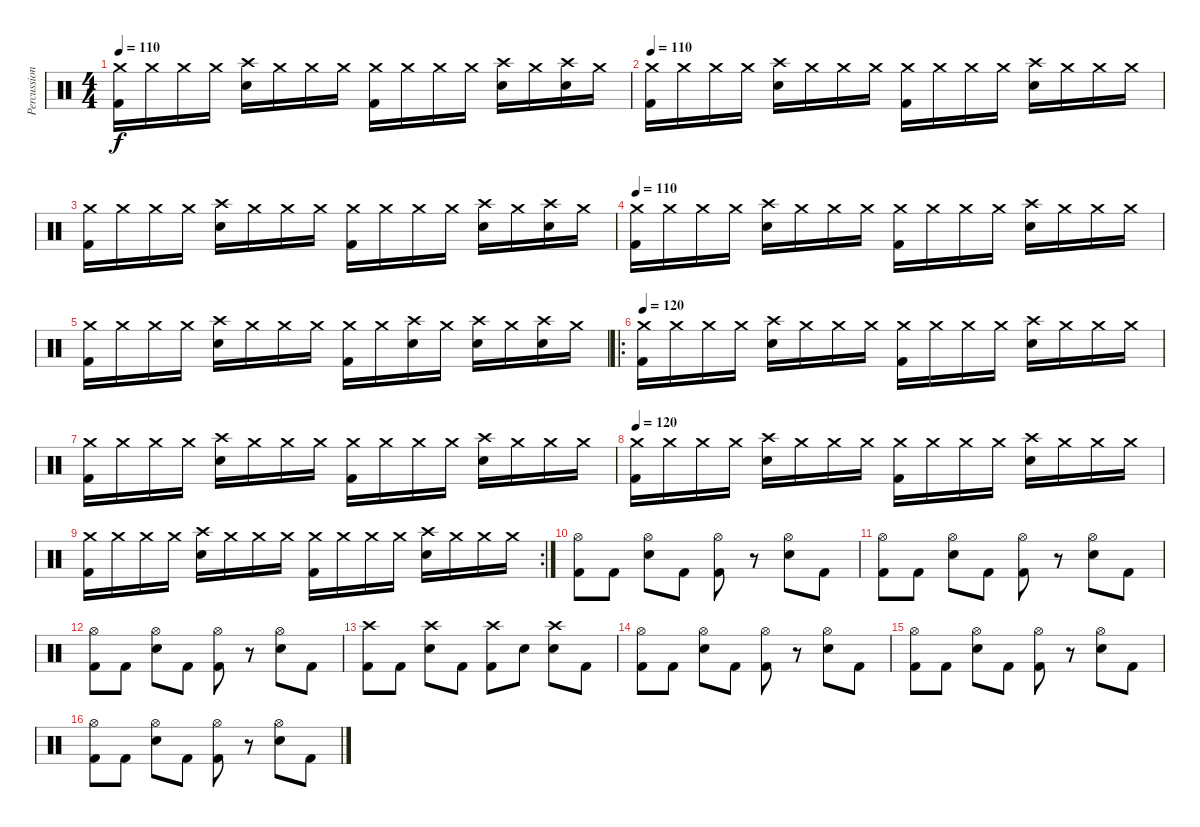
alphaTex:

\track ("Percussion" "Percussion") {instrument percussion}
\staff {score}
\articulation defaults
\ts (4 4)
\tempo 110
\clef neutral
\ks c
("Crash medium (hit)" "Kick (hit) 2").16{dy f} "Crash medium (hit)".16 "Crash medium (hit)".16 "Crash medium (hit)".16 ("Crash high (hit)" "Electric Snare (hit)").16 "Crash medium (hit)".16 "Crash medium (hit)".16 "Crash medium (hit)".16 ("Crash medium (hit)" "Kick (hit) 2").16 "Crash medium (hit)".16 "Crash medium (hit)".16 "Crash medium (hit)".16 ("Crash high (hit)" "Electric Snare (hit)").16 "Crash medium (hit)".16 ("Crash high (hit)" "Electric Snare (hit)").16 "Crash medium (hit)".16 |
\tempo 110
("Crash medium (hit)" "Kick (hit) 2").16 "Crash medium (hit)".16 "Crash medium (hit)".16 "Crash medium (hit)".16 ("Crash high (hit)" "Electric Snare (hit)").16 "Crash medium (hit)".16 "Crash medium (hit)".16 "Crash medium (hit)".16 ("Crash medium (hit)" "Kick (hit) 2").16 "Crash medium (hit)".16 "Crash medium (hit)".16 "Crash medium (hit)".16 ("Crash high (hit)" "Electric Snare (hit)").16 "Crash medium (hit)".16 "Crash medium (hit)".16 "Crash medium (hit)".16 |
("Crash medium (hit)" "Kick (hit) 2").16 "Crash medium (hit)".16 "Crash medium (hit)".16 "Crash medium (hit)".16 ("Crash high (hit)" "Electric Snare (hit)").16 "Crash medium (hit)".16 "Crash medium (hit)".16 "Crash medium (hit)".16 ("Crash medium (hit)" "Kick (hit) 2").16 "Crash medium (hit)".16 "Crash medium (hit)".16 "Crash medium (hit)".16 ("Crash high (hit)" "Electric Snare (hit)").16 "Crash medium (hit)".16 ("Crash high (hit)" "Electric Snare (hit)").16 "Crash medium (hit)".16 |
\tempo 110
("Crash medium (hit)" "Kick (hit) 2").16 "Crash medium (hit)".16 "Crash medium (hit)".16 "Crash medium (hit)".16 ("Crash high (hit)" "Electric Snare (hit)").16 "Crash medium (hit)".16 "Crash medium (hit)".16 "Crash medium (hit)".16 ("Crash medium (hit)" "Kick (hit) 2").16 "Crash medium (hit)".16 "Crash medium (hit)".16 "Crash medium (hit)".16 ("Crash high (hit)" "Electric Snare (hit)").16 "Crash medium (hit)".16 "Crash medium (hit)".16 "Crash medium (hit)".16 |
("Crash medium (hit)" "Kick (hit) 2").16 "Crash medium (hit)".16 "Crash medium (hit)".16 "Crash medium (hit)".16 ("Crash high (hit)" "Electric Snare (hit)").16 "Crash medium (hit)".16 "Crash medium (hit)".16 "Crash medium (hit)".16 ("Crash medium (hit)" "Kick (hit) 2").16 "Crash medium (hit)".16 ("Crash high (hit)" "Electric Snare (hit)").16 "Crash medium (hit)".16 ("Crash high (hit)" "Electric Snare (hit)").16 "Crash medium (hit)".16 ("Crash high (hit)" "Electric Snare (hit)").16 "Crash medium (hit)".16 |
\ro
\tempo 120
("Crash medium (hit)" "Kick (hit) 2").16 "Crash medium (hit)".16 "Crash medium (hit)".16 "Crash medium (hit)".16 ("Crash high (hit)" "Electric Snare (hit)").16 "Crash medium (hit)".16 "Crash medium (hit)".16 "Crash medium (hit)".16 ("Crash medium (hit)" "Kick (hit) 2").16 "Crash medium (hit)".16 "Crash medium (hit)".16 "Crash medium (hit)".16 ("Crash high (hit)" "Electric Snare (hit)").16 "Crash medium (hit)".16 "Crash medium (hit)".16 "Crash medium (hit)".16 |
("Crash medium (hit)" "Kick (hit) 2").16 "Crash medium (hit)".16 "Crash medium (hit)".16 "Crash medium (hit)".16 ("Crash high (hit)" "Electric Snare (hit)").16 "Crash medium (hit)".16 "Crash medium (hit)".16 "Crash medium (hit)".16 ("Crash medium (hit)" "Kick (hit) 2").16 "Crash medium (hit)".16 "Crash medium (hit)".16 "Crash medium (hit)".16 ("Crash high (hit)" "Electric Snare (hit)").16 "Crash medium (hit)".16 "Crash medium (hit)".16 "Crash medium (hit)".16 |
\tempo 120
("Crash medium (hit)" "Kick (hit) 2").16 "Crash medium (hit)".16 "Crash medium (hit)".16 "Crash medium (hit)".16 ("Crash high (hit)" "Electric Snare (hit)").16 "Crash medium (hit)".16 "Crash medium (hit)".16 "Crash medium (hit)".16 ("Crash medium (hit)" "Kick (hit) 2").16 "Crash medium (hit)".16 "Crash medium (hit)".16 "Crash medium (hit)".16 ("Crash high (hit)" "Electric Snare (hit)").16 "Crash medium (hit)".16 "Crash medium (hit)".16 "Crash medium (hit)".16 |
\rc 2
("Crash medium (hit)" "Kick (hit) 2").16 "Crash medium (hit)".16 "Crash medium (hit)".16 "Crash medium (hit)".16 ("Crash high (hit)" "Electric Snare (hit)").16 "Crash medium (hit)".16 "Crash medium (hit)".16 "Crash medium (hit)".16 ("Crash medium (hit)" "Kick (hit) 2").16 "Crash medium (hit)".16 "Crash medium (hit)".16 "Crash medium (hit)".16 ("Crash high (hit)" "Electric Snare (hit)").16 "Crash medium (hit)".16 "Crash medium (hit)".16 "Crash medium (hit)".16 |
("Hi-Hat (open)" "Kick (hit) 2").8 "Kick (hit) 2".8 ("Hi-Hat (open)" "Snare (hit) 2").8 "Kick (hit) 2".8 ("Hi-Hat (open)" "Kick (hit) 2").8 r.8 ("Hi-Hat (open)" "Snare (hit) 2").8 "Kick (hit) 2".8 |
("Hi-Hat (open)" "Kick (hit) 2").8 "Kick (hit) 2".8 ("Hi-Hat (open)" "Snare (hit) 2").8 "Kick (hit) 2".8 ("Hi-Hat (open)" "Kick (hit) 2").8 r.8 ("Hi-Hat (open)" "Snare (hit) 2").8 "Kick (hit) 2".8 |
("Hi-Hat (open)" "Kick (hit) 2").8 "Kick (hit) 2".8 ("Hi-Hat (open)" "Snare (hit) 2").8 "Kick (hit) 2".8 ("Hi-Hat (open)" "Kick (hit) 2").8 r.8 ("Hi-Hat (open)" "Snare (hit) 2").8 "Kick (hit) 2".8 |
("Crash high (hit)" "Kick (hit) 2").8 "Kick (hit) 2".8 ("Crash high (hit)" "Snare (hit) 2").8 "Kick (hit) 2".8 ("Crash high (hit)" "Kick (hit) 2").8 "Snare (hit) 2".8 ("Crash high (hit)" "Snare (hit) 2").8 "Kick (hit) 2".8 |
("Hi-Hat (open)" "Kick (hit) 2").8 "Kick (hit) 2".8 ("Hi-Hat (open)" "Snare (hit) 2").8 "Kick (hit) 2".8 ("Hi-Hat (open)" "Kick (hit) 2").8 r.8 ("Hi-Hat (open)" "Snare (hit) 2").8 "Kick (hit) 2".8 |
("Hi-Hat (open)" "Kick (hit) 2").8 "Kick (hit) 2".8 ("Hi-Hat (open)" "Snare (hit) 2").8 "Kick (hit) 2".8 ("Hi-Hat (open)" "Kick (hit) 2").8 r.8 ("Hi-Hat (open)" "Snare (hit) 2").8 "Kick (hit) 2".8 |
("Hi-Hat (open)" "Kick (hit) 2").8 "Kick (hit) 2".8 ("Hi-Hat (open)" "Snare (hit) 2").8 "Kick (hit) 2".8 ("Hi-Hat (open)" "Kick (hit) 2").8 r.8 ("Hi-Hat (open)" "Snare (hit) 2").8 "Kick (hit) 2".8
